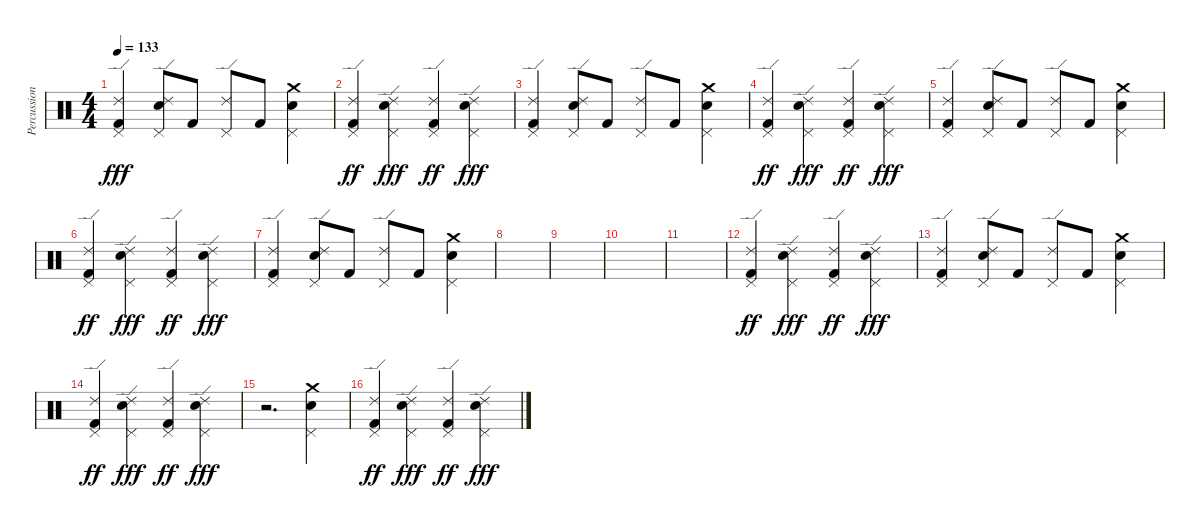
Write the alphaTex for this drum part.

\track ("Percussion" "Percussion") {instrument percussion}
\staff {score}
\articulation defaults
\ts (4 4)
\tempo 133
\clef neutral
\ks c
("Ride (edge) 2" "Pedal Hi-Hat (hit)" "Kick (hit) 2").4{dy fff} ("Ride (edge) 2" "Electric Snare (hit)" "Pedal Hi-Hat (hit)").8 "Kick (hit) 2".8 ("Ride (edge) 2" "Pedal Hi-Hat (hit)").8 "Kick (hit) 2".8 ("Crash medium (hit)" "Electric Snare (hit)" "Pedal Hi-Hat (hit)").4 |
("Ride (edge) 2" "Pedal Hi-Hat (hit)" "Kick (hit) 2").4{dy ff} ("Ride (edge) 2" "Electric Snare (hit)" "Pedal Hi-Hat (hit)").4{dy fff} ("Ride (edge) 2" "Pedal Hi-Hat (hit)" "Kick (hit) 2").4{dy ff} ("Ride (edge) 2" "Electric Snare (hit)" "Pedal Hi-Hat (hit)").4{dy fff} |
("Ride (edge) 2" "Pedal Hi-Hat (hit)" "Kick (hit) 2").4 ("Ride (edge) 2" "Electric Snare (hit)" "Pedal Hi-Hat (hit)").8 "Kick (hit) 2".8 ("Ride (edge) 2" "Pedal Hi-Hat (hit)").8 "Kick (hit) 2".8 ("Crash medium (hit)" "Electric Snare (hit)" "Pedal Hi-Hat (hit)").4 |
("Ride (edge) 2" "Pedal Hi-Hat (hit)" "Kick (hit) 2").4{dy ff} ("Ride (edge) 2" "Electric Snare (hit)" "Pedal Hi-Hat (hit)").4{dy fff} ("Ride (edge) 2" "Pedal Hi-Hat (hit)" "Kick (hit) 2").4{dy ff} ("Ride (edge) 2" "Electric Snare (hit)" "Pedal Hi-Hat (hit)").4{dy fff} |
("Ride (edge) 2" "Pedal Hi-Hat (hit)" "Kick (hit) 2").4 ("Ride (edge) 2" "Electric Snare (hit)" "Pedal Hi-Hat (hit)").8 "Kick (hit) 2".8 ("Ride (edge) 2" "Pedal Hi-Hat (hit)").8 "Kick (hit) 2".8 ("Crash medium (hit)" "Electric Snare (hit)" "Pedal Hi-Hat (hit)").4 |
("Ride (edge) 2" "Pedal Hi-Hat (hit)" "Kick (hit) 2").4{dy ff} ("Ride (edge) 2" "Electric Snare (hit)" "Pedal Hi-Hat (hit)").4{dy fff} ("Ride (edge) 2" "Pedal Hi-Hat (hit)" "Kick (hit) 2").4{dy ff} ("Ride (edge) 2" "Electric Snare (hit)" "Pedal Hi-Hat (hit)").4{dy fff} |
("Ride (edge) 2" "Pedal Hi-Hat (hit)" "Kick (hit) 2").4 ("Ride (edge) 2" "Electric Snare (hit)" "Pedal Hi-Hat (hit)").8 "Kick (hit) 2".8 ("Ride (edge) 2" "Pedal Hi-Hat (hit)").8 "Kick (hit) 2".8 ("Crash medium (hit)" "Electric Snare (hit)" "Pedal Hi-Hat (hit)").4 |
|
|
|
|
("Ride (edge) 2" "Pedal Hi-Hat (hit)" "Kick (hit) 2").4{dy ff} ("Ride (edge) 2" "Electric Snare (hit)" "Pedal Hi-Hat (hit)").4{dy fff} ("Ride (edge) 2" "Pedal Hi-Hat (hit)" "Kick (hit) 2").4{dy ff} ("Ride (edge) 2" "Electric Snare (hit)" "Pedal Hi-Hat (hit)").4{dy fff} |
("Ride (edge) 2" "Pedal Hi-Hat (hit)" "Kick (hit) 2").4 ("Ride (edge) 2" "Electric Snare (hit)" "Pedal Hi-Hat (hit)").8 "Kick (hit) 2".8 ("Ride (edge) 2" "Pedal Hi-Hat (hit)").8 "Kick (hit) 2".8 ("Crash medium (hit)" "Electric Snare (hit)" "Pedal Hi-Hat (hit)").4 |
("Ride (edge) 2" "Pedal Hi-Hat (hit)" "Kick (hit) 2").4{dy ff} ("Ride (edge) 2" "Electric Snare (hit)" "Pedal Hi-Hat (hit)").4{dy fff} ("Ride (edge) 2" "Pedal Hi-Hat (hit)" "Kick (hit) 2").4{dy ff} ("Ride (edge) 2" "Electric Snare (hit)" "Pedal Hi-Hat (hit)").4{dy fff} |
r.2{d} ("Crash medium (hit)" "Electric Snare (hit)" "Pedal Hi-Hat (hit)").4 |
("Ride (edge) 2" "Pedal Hi-Hat (hit)" "Kick (hit) 2").4{dy ff} ("Ride (edge) 2" "Electric Snare (hit)" "Pedal Hi-Hat (hit)").4{dy fff} ("Ride (edge) 2" "Pedal Hi-Hat (hit)" "Kick (hit) 2").4{dy ff} ("Ride (edge) 2" "Electric Snare (hit)" "Pedal Hi-Hat (hit)").4{dy fff}
